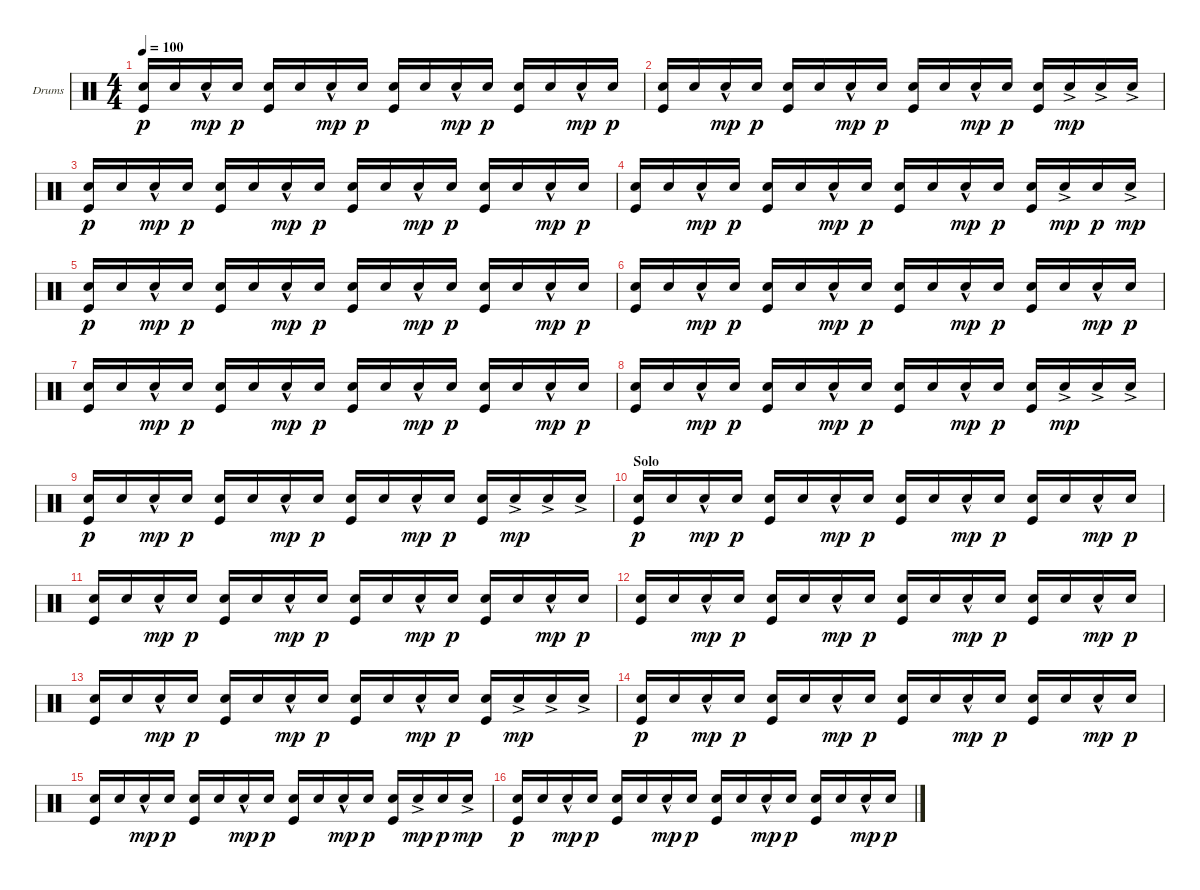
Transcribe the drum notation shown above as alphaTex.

\defaultSystemsLayout 4
\bracketExtendMode groupsimilarinstruments
\firstSystemTrackNameOrientation horizontal
\otherSystemsTrackNameOrientation horizontal
\track ("Drumkit" "Drums") {instrument percussion}
\staff {score}
\articulation defaults
\ts (4 4)
\tempo 100
\clef neutral
\ks c
("Snare (hit) 2" "Kick (hit)").16{dy p} "Snare (hit) 2".16 "Snare (hit) 2"{hac}.16{dy mp} "Snare (hit) 2".16{dy p} ("Snare (hit) 2" "Kick (hit)").16 "Snare (hit) 2".16 "Snare (hit) 2"{hac}.16{dy mp} "Snare (hit) 2".16{dy p} ("Snare (hit) 2" "Kick (hit)").16 "Snare (hit) 2".16 "Snare (hit) 2"{hac}.16{dy mp} "Snare (hit) 2".16{dy p} ("Snare (hit) 2" "Kick (hit)").16 "Snare (hit) 2".16 "Snare (hit) 2"{hac}.16{dy mp} "Snare (hit) 2".16{dy p} |
("Snare (hit) 2" "Kick (hit)").16 "Snare (hit) 2".16 "Snare (hit) 2"{hac}.16{dy mp} "Snare (hit) 2".16{dy p} ("Snare (hit) 2" "Kick (hit)").16 "Snare (hit) 2".16 "Snare (hit) 2"{hac}.16{dy mp} "Snare (hit) 2".16{dy p} ("Snare (hit) 2" "Kick (hit)").16 "Snare (hit) 2".16 "Snare (hit) 2"{hac}.16{dy mp} "Snare (hit) 2".16{dy p} ("Snare (hit) 2" "Kick (hit)").16 "Snare (hit) 2"{ac}.16{dy mp} "Snare (hit) 2"{ac}.16 "Snare (hit) 2"{ac}.16 |
("Snare (hit) 2" "Kick (hit)").16{dy p} "Snare (hit) 2".16 "Snare (hit) 2"{hac}.16{dy mp} "Snare (hit) 2".16{dy p} ("Snare (hit) 2" "Kick (hit)").16 "Snare (hit) 2".16 "Snare (hit) 2"{hac}.16{dy mp} "Snare (hit) 2".16{dy p} ("Snare (hit) 2" "Kick (hit)").16 "Snare (hit) 2".16 "Snare (hit) 2"{hac}.16{dy mp} "Snare (hit) 2".16{dy p} ("Snare (hit) 2" "Kick (hit)").16 "Snare (hit) 2".16 "Snare (hit) 2"{hac}.16{dy mp} "Snare (hit) 2".16{dy p} |
("Snare (hit) 2" "Kick (hit)").16 "Snare (hit) 2".16 "Snare (hit) 2"{hac}.16{dy mp} "Snare (hit) 2".16{dy p} ("Snare (hit) 2" "Kick (hit)").16 "Snare (hit) 2".16 "Snare (hit) 2"{hac}.16{dy mp} "Snare (hit) 2".16{dy p} ("Snare (hit) 2" "Kick (hit)").16 "Snare (hit) 2".16 "Snare (hit) 2"{hac}.16{dy mp} "Snare (hit) 2".16{dy p} ("Snare (hit) 2" "Kick (hit)").16 "Snare (hit) 2"{ac}.16{dy mp} "Snare (hit) 2".16{dy p} "Snare (hit) 2"{ac}.16{dy mp} |
("Snare (hit) 2" "Kick (hit)").16{dy p} "Snare (hit) 2".16 "Snare (hit) 2"{hac}.16{dy mp} "Snare (hit) 2".16{dy p} ("Snare (hit) 2" "Kick (hit)").16 "Snare (hit) 2".16 "Snare (hit) 2"{hac}.16{dy mp} "Snare (hit) 2".16{dy p} ("Snare (hit) 2" "Kick (hit)").16 "Snare (hit) 2".16 "Snare (hit) 2"{hac}.16{dy mp} "Snare (hit) 2".16{dy p} ("Snare (hit) 2" "Kick (hit)").16 "Snare (hit) 2".16 "Snare (hit) 2"{hac}.16{dy mp} "Snare (hit) 2".16{dy p} |
("Snare (hit) 2" "Kick (hit)").16 "Snare (hit) 2".16 "Snare (hit) 2"{hac}.16{dy mp} "Snare (hit) 2".16{dy p} ("Snare (hit) 2" "Kick (hit)").16 "Snare (hit) 2".16 "Snare (hit) 2"{hac}.16{dy mp} "Snare (hit) 2".16{dy p} ("Snare (hit) 2" "Kick (hit)").16 "Snare (hit) 2".16 "Snare (hit) 2"{hac}.16{dy mp} "Snare (hit) 2".16{dy p} ("Snare (hit) 2" "Kick (hit)").16 "Snare (hit) 2".16 "Snare (hit) 2"{hac}.16{dy mp} "Snare (hit) 2".16{dy p} |
("Snare (hit) 2" "Kick (hit)").16 "Snare (hit) 2".16 "Snare (hit) 2"{hac}.16{dy mp} "Snare (hit) 2".16{dy p} ("Snare (hit) 2" "Kick (hit)").16 "Snare (hit) 2".16 "Snare (hit) 2"{hac}.16{dy mp} "Snare (hit) 2".16{dy p} ("Snare (hit) 2" "Kick (hit)").16 "Snare (hit) 2".16 "Snare (hit) 2"{hac}.16{dy mp} "Snare (hit) 2".16{dy p} ("Snare (hit) 2" "Kick (hit)").16 "Snare (hit) 2".16 "Snare (hit) 2"{hac}.16{dy mp} "Snare (hit) 2".16{dy p} |
("Snare (hit) 2" "Kick (hit)").16 "Snare (hit) 2".16 "Snare (hit) 2"{hac}.16{dy mp} "Snare (hit) 2".16{dy p} ("Snare (hit) 2" "Kick (hit)").16 "Snare (hit) 2".16 "Snare (hit) 2"{hac}.16{dy mp} "Snare (hit) 2".16{dy p} ("Snare (hit) 2" "Kick (hit)").16 "Snare (hit) 2".16 "Snare (hit) 2"{hac}.16{dy mp} "Snare (hit) 2".16{dy p} ("Snare (hit) 2" "Kick (hit)").16 "Snare (hit) 2"{ac}.16{dy mp} "Snare (hit) 2"{ac}.16 "Snare (hit) 2"{ac}.16 |
("Snare (hit) 2" "Kick (hit)").16{dy p} "Snare (hit) 2".16 "Snare (hit) 2"{hac}.16{dy mp} "Snare (hit) 2".16{dy p} ("Snare (hit) 2" "Kick (hit)").16 "Snare (hit) 2".16 "Snare (hit) 2"{hac}.16{dy mp} "Snare (hit) 2".16{dy p} ("Snare (hit) 2" "Kick (hit)").16 "Snare (hit) 2".16 "Snare (hit) 2"{hac}.16{dy mp} "Snare (hit) 2".16{dy p} ("Snare (hit) 2" "Kick (hit)").16 "Snare (hit) 2"{ac}.16{dy mp} "Snare (hit) 2"{ac}.16 "Snare (hit) 2"{ac}.16 |
\section ("" "Solo")
("Snare (hit) 2" "Kick (hit)").16{dy p} "Snare (hit) 2".16 "Snare (hit) 2"{hac}.16{dy mp} "Snare (hit) 2".16{dy p} ("Snare (hit) 2" "Kick (hit)").16 "Snare (hit) 2".16 "Snare (hit) 2"{hac}.16{dy mp} "Snare (hit) 2".16{dy p} ("Snare (hit) 2" "Kick (hit)").16 "Snare (hit) 2".16 "Snare (hit) 2"{hac}.16{dy mp} "Snare (hit) 2".16{dy p} ("Snare (hit) 2" "Kick (hit)").16 "Snare (hit) 2".16 "Snare (hit) 2"{hac}.16{dy mp} "Snare (hit) 2".16{dy p} |
("Snare (hit) 2" "Kick (hit)").16 "Snare (hit) 2".16 "Snare (hit) 2"{hac}.16{dy mp} "Snare (hit) 2".16{dy p} ("Snare (hit) 2" "Kick (hit)").16 "Snare (hit) 2".16 "Snare (hit) 2"{hac}.16{dy mp} "Snare (hit) 2".16{dy p} ("Snare (hit) 2" "Kick (hit)").16 "Snare (hit) 2".16 "Snare (hit) 2"{hac}.16{dy mp} "Snare (hit) 2".16{dy p} ("Snare (hit) 2" "Kick (hit)").16 "Snare (hit) 2".16 "Snare (hit) 2"{hac}.16{dy mp} "Snare (hit) 2".16{dy p} |
("Snare (hit) 2" "Kick (hit)").16 "Snare (hit) 2".16 "Snare (hit) 2"{hac}.16{dy mp} "Snare (hit) 2".16{dy p} ("Snare (hit) 2" "Kick (hit)").16 "Snare (hit) 2".16 "Snare (hit) 2"{hac}.16{dy mp} "Snare (hit) 2".16{dy p} ("Snare (hit) 2" "Kick (hit)").16 "Snare (hit) 2".16 "Snare (hit) 2"{hac}.16{dy mp} "Snare (hit) 2".16{dy p} ("Snare (hit) 2" "Kick (hit)").16 "Snare (hit) 2".16 "Snare (hit) 2"{hac}.16{dy mp} "Snare (hit) 2".16{dy p} |
("Snare (hit) 2" "Kick (hit)").16 "Snare (hit) 2".16 "Snare (hit) 2"{hac}.16{dy mp} "Snare (hit) 2".16{dy p} ("Snare (hit) 2" "Kick (hit)").16 "Snare (hit) 2".16 "Snare (hit) 2"{hac}.16{dy mp} "Snare (hit) 2".16{dy p} ("Snare (hit) 2" "Kick (hit)").16 "Snare (hit) 2".16 "Snare (hit) 2"{hac}.16{dy mp} "Snare (hit) 2".16{dy p} ("Snare (hit) 2" "Kick (hit)").16 "Snare (hit) 2"{ac}.16{dy mp} "Snare (hit) 2"{ac}.16 "Snare (hit) 2"{ac}.16 |
("Snare (hit) 2" "Kick (hit)").16{dy p} "Snare (hit) 2".16 "Snare (hit) 2"{hac}.16{dy mp} "Snare (hit) 2".16{dy p} ("Snare (hit) 2" "Kick (hit)").16 "Snare (hit) 2".16 "Snare (hit) 2"{hac}.16{dy mp} "Snare (hit) 2".16{dy p} ("Snare (hit) 2" "Kick (hit)").16 "Snare (hit) 2".16 "Snare (hit) 2"{hac}.16{dy mp} "Snare (hit) 2".16{dy p} ("Snare (hit) 2" "Kick (hit)").16 "Snare (hit) 2".16 "Snare (hit) 2"{hac}.16{dy mp} "Snare (hit) 2".16{dy p} |
("Snare (hit) 2" "Kick (hit)").16 "Snare (hit) 2".16 "Snare (hit) 2"{hac}.16{dy mp} "Snare (hit) 2".16{dy p} ("Snare (hit) 2" "Kick (hit)").16 "Snare (hit) 2".16 "Snare (hit) 2"{hac}.16{dy mp} "Snare (hit) 2".16{dy p} ("Snare (hit) 2" "Kick (hit)").16 "Snare (hit) 2".16 "Snare (hit) 2"{hac}.16{dy mp} "Snare (hit) 2".16{dy p} ("Snare (hit) 2" "Kick (hit)").16 "Snare (hit) 2"{ac}.16{dy mp} "Snare (hit) 2".16{dy p} "Snare (hit) 2"{ac}.16{dy mp} |
("Snare (hit) 2" "Kick (hit)").16{dy p} "Snare (hit) 2".16 "Snare (hit) 2"{hac}.16{dy mp} "Snare (hit) 2".16{dy p} ("Snare (hit) 2" "Kick (hit)").16 "Snare (hit) 2".16 "Snare (hit) 2"{hac}.16{dy mp} "Snare (hit) 2".16{dy p} ("Snare (hit) 2" "Kick (hit)").16 "Snare (hit) 2".16 "Snare (hit) 2"{hac}.16{dy mp} "Snare (hit) 2".16{dy p} ("Snare (hit) 2" "Kick (hit)").16 "Snare (hit) 2".16 "Snare (hit) 2"{hac}.16{dy mp} "Snare (hit) 2".16{dy p}
